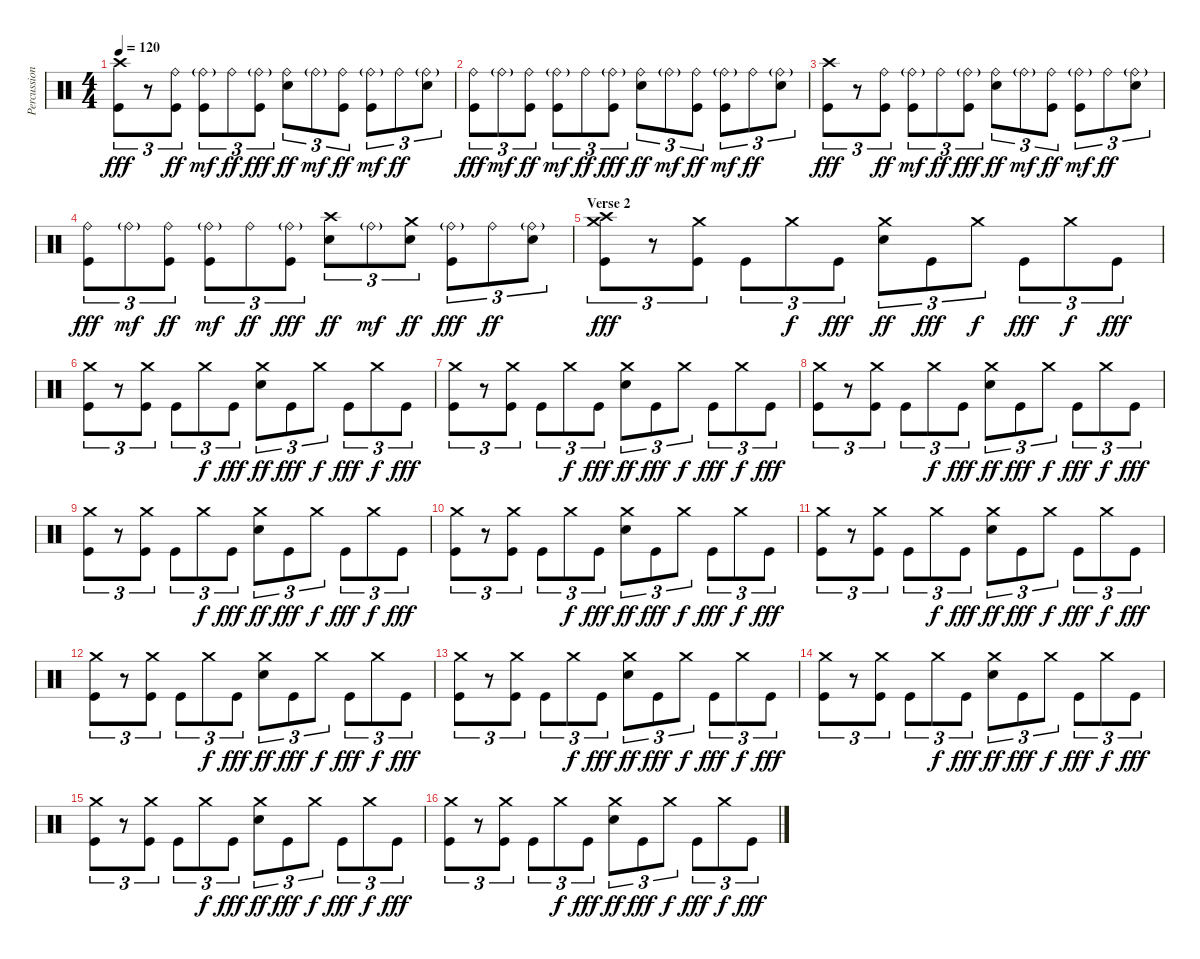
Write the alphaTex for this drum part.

\track ("Percussion" "Percussion") {instrument percussion}
\staff {score}
\articulation defaults
\ts (4 4)
\tempo 120
\clef neutral
\ks c
("Crash high (hit)" "Kick (hit)").8{tu (3 2) dy fff} r.8{tu (3 2)} ("Ride (bell)" "Kick (hit)").8{tu (3 2) dy ff} ("Ride (bell)"{g} "Kick (hit)").8{tu (3 2) dy mf} "Ride (bell)".8{tu (3 2) dy ff} ("Ride (bell)"{g} "Kick (hit)").8{tu (3 2) dy fff} ("Ride (bell)" "Snare (hit) 2").8{tu (3 2) dy ff} "Ride (bell)"{g}.8{tu (3 2) dy mf} ("Ride (bell)" "Kick (hit)").8{tu (3 2) dy ff} ("Ride (bell)"{g} "Kick (hit)").8{tu (3 2) dy mf} "Ride (bell)".8{tu (3 2) dy ff} ("Ride (bell)"{g} "Snare (hit) 2").8{tu (3 2)} |
("Ride (bell)" "Kick (hit)").8{tu (3 2) dy fff} "Ride (bell)"{g}.8{tu (3 2) dy mf} ("Ride (bell)" "Kick (hit)").8{tu (3 2) dy ff} ("Ride (bell)"{g} "Kick (hit)").8{tu (3 2) dy mf} "Ride (bell)".8{tu (3 2) dy ff} ("Ride (bell)"{g} "Kick (hit)").8{tu (3 2) dy fff} ("Ride (bell)" "Snare (hit) 2").8{tu (3 2) dy ff} "Ride (bell)"{g}.8{tu (3 2) dy mf} ("Ride (bell)" "Kick (hit)").8{tu (3 2) dy ff} ("Ride (bell)"{g} "Kick (hit)").8{tu (3 2) dy mf} "Ride (bell)".8{tu (3 2) dy ff} ("Ride (bell)"{g} "Snare (hit) 2").8{tu (3 2)} |
("Crash high (hit)" "Kick (hit)").8{tu (3 2) dy fff} r.8{tu (3 2)} ("Ride (bell)" "Kick (hit)").8{tu (3 2) dy ff} ("Ride (bell)"{g} "Kick (hit)").8{tu (3 2) dy mf} "Ride (bell)".8{tu (3 2) dy ff} ("Ride (bell)"{g} "Kick (hit)").8{tu (3 2) dy fff} ("Ride (bell)" "Snare (hit) 2").8{tu (3 2) dy ff} "Ride (bell)"{g}.8{tu (3 2) dy mf} ("Ride (bell)" "Kick (hit)").8{tu (3 2) dy ff} ("Ride (bell)"{g} "Kick (hit)").8{tu (3 2) dy mf} "Ride (bell)".8{tu (3 2) dy ff} ("Ride (bell)"{g} "Snare (hit) 2").8{tu (3 2)} |
("Ride (bell)" "Kick (hit)").8{tu (3 2) dy fff} "Ride (bell)"{g}.8{tu (3 2) dy mf} ("Ride (bell)" "Kick (hit)").8{tu (3 2) dy ff} ("Ride (bell)"{g} "Kick (hit)").8{tu (3 2) dy mf} "Ride (bell)".8{tu (3 2) dy ff} ("Ride (bell)"{g} "Kick (hit)").8{tu (3 2) dy fff} ("Crash high (hit)" "Snare (hit) 2").8{tu (3 2) dy ff} "Ride (bell)"{g}.8{tu (3 2) dy mf} ("Crash medium (hit)" "Snare (hit) 2").8{tu (3 2) dy ff} ("Ride (bell)"{g} "Kick (hit)").8{tu (3 2) dy fff} "Ride (bell)".8{tu (3 2) dy ff} ("Ride (bell)"{g} "Snare (hit) 2").8{tu (3 2)} |
\section ("" "Verse 2")
("Crash high (hit)" "Crash medium (hit)" "Kick (hit)").8{tu (3 2) dy fff} r.8{tu (3 2)} ("Crash medium (hit)" "Kick (hit)").8{tu (3 2)} "Kick (hit)".8{tu (3 2)} "Crash medium (hit)".8{tu (3 2) dy f} "Kick (hit)".8{tu (3 2) dy fff} ("Crash medium (hit)" "Snare (hit) 2").8{tu (3 2) dy ff} "Kick (hit)".8{tu (3 2) dy fff} "Crash medium (hit)".8{tu (3 2) dy f} "Kick (hit)".8{tu (3 2) dy fff} "Crash medium (hit)".8{tu (3 2) dy f} "Kick (hit)".8{tu (3 2) dy fff} |
("Crash medium (hit)" "Kick (hit)").8{tu (3 2)} r.8{tu (3 2)} ("Crash medium (hit)" "Kick (hit)").8{tu (3 2)} "Kick (hit)".8{tu (3 2)} "Crash medium (hit)".8{tu (3 2) dy f} "Kick (hit)".8{tu (3 2) dy fff} ("Crash medium (hit)" "Snare (hit) 2").8{tu (3 2) dy ff} "Kick (hit)".8{tu (3 2) dy fff} "Crash medium (hit)".8{tu (3 2) dy f} "Kick (hit)".8{tu (3 2) dy fff} "Crash medium (hit)".8{tu (3 2) dy f} "Kick (hit)".8{tu (3 2) dy fff} |
("Crash medium (hit)" "Kick (hit)").8{tu (3 2)} r.8{tu (3 2)} ("Crash medium (hit)" "Kick (hit)").8{tu (3 2)} "Kick (hit)".8{tu (3 2)} "Crash medium (hit)".8{tu (3 2) dy f} "Kick (hit)".8{tu (3 2) dy fff} ("Crash medium (hit)" "Snare (hit) 2").8{tu (3 2) dy ff} "Kick (hit)".8{tu (3 2) dy fff} "Crash medium (hit)".8{tu (3 2) dy f} "Kick (hit)".8{tu (3 2) dy fff} "Crash medium (hit)".8{tu (3 2) dy f} "Kick (hit)".8{tu (3 2) dy fff} |
("Crash medium (hit)" "Kick (hit)").8{tu (3 2)} r.8{tu (3 2)} ("Crash medium (hit)" "Kick (hit)").8{tu (3 2)} "Kick (hit)".8{tu (3 2)} "Crash medium (hit)".8{tu (3 2) dy f} "Kick (hit)".8{tu (3 2) dy fff} ("Crash medium (hit)" "Snare (hit) 2").8{tu (3 2) dy ff} "Kick (hit)".8{tu (3 2) dy fff} "Crash medium (hit)".8{tu (3 2) dy f} "Kick (hit)".8{tu (3 2) dy fff} "Crash medium (hit)".8{tu (3 2) dy f} "Kick (hit)".8{tu (3 2) dy fff} |
("Crash medium (hit)" "Kick (hit)").8{tu (3 2)} r.8{tu (3 2)} ("Crash medium (hit)" "Kick (hit)").8{tu (3 2)} "Kick (hit)".8{tu (3 2)} "Crash medium (hit)".8{tu (3 2) dy f} "Kick (hit)".8{tu (3 2) dy fff} ("Crash medium (hit)" "Snare (hit) 2").8{tu (3 2) dy ff} "Kick (hit)".8{tu (3 2) dy fff} "Crash medium (hit)".8{tu (3 2) dy f} "Kick (hit)".8{tu (3 2) dy fff} "Crash medium (hit)".8{tu (3 2) dy f} "Kick (hit)".8{tu (3 2) dy fff} |
("Crash medium (hit)" "Kick (hit)").8{tu (3 2)} r.8{tu (3 2)} ("Crash medium (hit)" "Kick (hit)").8{tu (3 2)} "Kick (hit)".8{tu (3 2)} "Crash medium (hit)".8{tu (3 2) dy f} "Kick (hit)".8{tu (3 2) dy fff} ("Crash medium (hit)" "Snare (hit) 2").8{tu (3 2) dy ff} "Kick (hit)".8{tu (3 2) dy fff} "Crash medium (hit)".8{tu (3 2) dy f} "Kick (hit)".8{tu (3 2) dy fff} "Crash medium (hit)".8{tu (3 2) dy f} "Kick (hit)".8{tu (3 2) dy fff} |
("Crash medium (hit)" "Kick (hit)").8{tu (3 2)} r.8{tu (3 2)} ("Crash medium (hit)" "Kick (hit)").8{tu (3 2)} "Kick (hit)".8{tu (3 2)} "Crash medium (hit)".8{tu (3 2) dy f} "Kick (hit)".8{tu (3 2) dy fff} ("Crash medium (hit)" "Snare (hit) 2").8{tu (3 2) dy ff} "Kick (hit)".8{tu (3 2) dy fff} "Crash medium (hit)".8{tu (3 2) dy f} "Kick (hit)".8{tu (3 2) dy fff} "Crash medium (hit)".8{tu (3 2) dy f} "Kick (hit)".8{tu (3 2) dy fff} |
("Crash medium (hit)" "Kick (hit)").8{tu (3 2)} r.8{tu (3 2)} ("Crash medium (hit)" "Kick (hit)").8{tu (3 2)} "Kick (hit)".8{tu (3 2)} "Crash medium (hit)".8{tu (3 2) dy f} "Kick (hit)".8{tu (3 2) dy fff} ("Crash medium (hit)" "Snare (hit) 2").8{tu (3 2) dy ff} "Kick (hit)".8{tu (3 2) dy fff} "Crash medium (hit)".8{tu (3 2) dy f} "Kick (hit)".8{tu (3 2) dy fff} "Crash medium (hit)".8{tu (3 2) dy f} "Kick (hit)".8{tu (3 2) dy fff} |
("Crash medium (hit)" "Kick (hit)").8{tu (3 2)} r.8{tu (3 2)} ("Crash medium (hit)" "Kick (hit)").8{tu (3 2)} "Kick (hit)".8{tu (3 2)} "Crash medium (hit)".8{tu (3 2) dy f} "Kick (hit)".8{tu (3 2) dy fff} ("Crash medium (hit)" "Snare (hit) 2").8{tu (3 2) dy ff} "Kick (hit)".8{tu (3 2) dy fff} "Crash medium (hit)".8{tu (3 2) dy f} "Kick (hit)".8{tu (3 2) dy fff} "Crash medium (hit)".8{tu (3 2) dy f} "Kick (hit)".8{tu (3 2) dy fff} |
("Crash medium (hit)" "Kick (hit)").8{tu (3 2)} r.8{tu (3 2)} ("Crash medium (hit)" "Kick (hit)").8{tu (3 2)} "Kick (hit)".8{tu (3 2)} "Crash medium (hit)".8{tu (3 2) dy f} "Kick (hit)".8{tu (3 2) dy fff} ("Crash medium (hit)" "Snare (hit) 2").8{tu (3 2) dy ff} "Kick (hit)".8{tu (3 2) dy fff} "Crash medium (hit)".8{tu (3 2) dy f} "Kick (hit)".8{tu (3 2) dy fff} "Crash medium (hit)".8{tu (3 2) dy f} "Kick (hit)".8{tu (3 2) dy fff} |
("Crash medium (hit)" "Kick (hit)").8{tu (3 2)} r.8{tu (3 2)} ("Crash medium (hit)" "Kick (hit)").8{tu (3 2)} "Kick (hit)".8{tu (3 2)} "Crash medium (hit)".8{tu (3 2) dy f} "Kick (hit)".8{tu (3 2) dy fff} ("Crash medium (hit)" "Snare (hit) 2").8{tu (3 2) dy ff} "Kick (hit)".8{tu (3 2) dy fff} "Crash medium (hit)".8{tu (3 2) dy f} "Kick (hit)".8{tu (3 2) dy fff} "Crash medium (hit)".8{tu (3 2) dy f} "Kick (hit)".8{tu (3 2) dy fff} |
("Crash medium (hit)" "Kick (hit)").8{tu (3 2)} r.8{tu (3 2)} ("Crash medium (hit)" "Kick (hit)").8{tu (3 2)} "Kick (hit)".8{tu (3 2)} "Crash medium (hit)".8{tu (3 2) dy f} "Kick (hit)".8{tu (3 2) dy fff} ("Crash medium (hit)" "Snare (hit) 2").8{tu (3 2) dy ff} "Kick (hit)".8{tu (3 2) dy fff} "Crash medium (hit)".8{tu (3 2) dy f} "Kick (hit)".8{tu (3 2) dy fff} "Crash medium (hit)".8{tu (3 2) dy f} "Kick (hit)".8{tu (3 2) dy fff}
